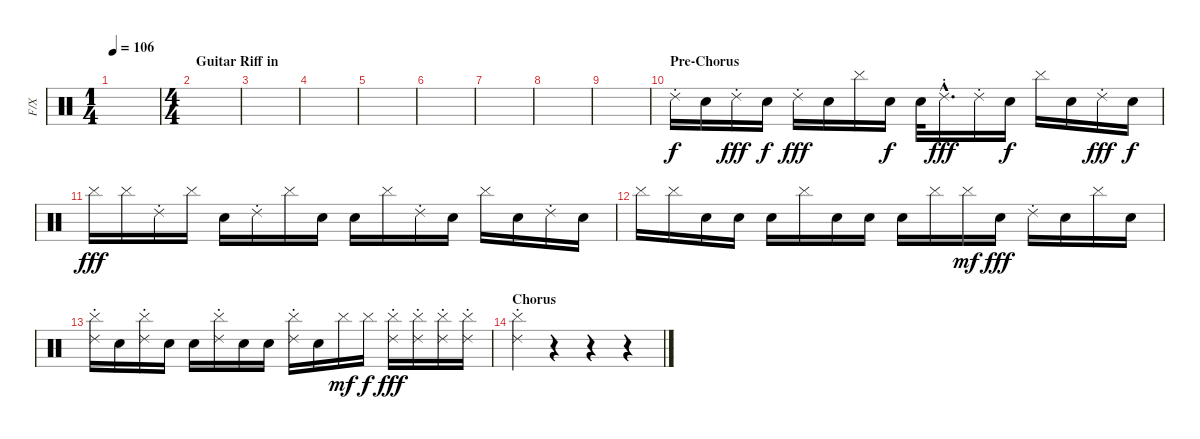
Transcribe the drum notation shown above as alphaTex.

\track ("F/X" "F/X") {instrument percussion}
\staff {score}
\articulation defaults
\ts (1 4)
\tempo 106
\clef neutral
\ks c
|
\ts (4 4)
\section ("" "Guitar Riff in")
|
|
|
|
|
|
|
|
\section ("" "Pre-Chorus")
"Ride (choke) 2".16 "Snare (hit)".16{dy f} "Ride (choke) 2".16{dy fff} "Snare (hit)".16{dy f} "Ride (choke) 2".16{dy fff} "Snare (hit)".16 "Cymbal (hit)".16 "Snare (hit)".16{dy f} "Snare (hit)".32 "Ride (choke) 2"{hac}.16{d dy fff} "Ride (choke) 2".16 "Snare (hit)".16{dy f} "Cymbal (hit)".16 "Snare (hit)".16 "Ride (choke) 2".16{dy fff} "Snare (hit)".16{dy f} |
"Cymbal (hit)".16{dy fff} "Cymbal (hit)".16 "Ride (choke) 2".16 "Cymbal (hit)".16 "Snare (hit)".16 "Ride (choke) 2".16 "Cymbal (hit)".16 "Snare (hit)".16 "Snare (hit)".16 "Cymbal (hit)".16 "Ride (choke) 2".16 "Snare (hit)".16 "Cymbal (hit)".16 "Snare (hit)".16 "Ride (choke) 2".16 "Snare (hit)".16 |
"Cymbal (hit)".16 "Cymbal (hit)".16 "Snare (hit)".16 "Snare (hit)".16 "Snare (hit)".16 "Cymbal (hit)".16 "Snare (hit)".16 "Snare (hit)".16 "Snare (hit)".16 "Cymbal (hit)".16 "Cymbal (hit)".16{dy mf} "Snare (hit)".16{dy fff} "Ride (choke) 2".16 "Snare (hit)".16 "Cymbal (hit)".16 "Snare (hit)".16 |
("Cymbal (hit)" "Ride (choke) 2").16 "Snare (hit)".16 ("Cymbal (hit)" "Ride (choke) 2").16 "Snare (hit)".16 "Snare (hit)".16 ("Cymbal (hit)" "Ride (choke) 2").16 "Snare (hit)".16 "Snare (hit)".16 ("Cymbal (hit)" "Ride (choke) 2").16 "Snare (hit)".16 "Cymbal (hit)".16{dy mf} "Cymbal (hit)".16{dy f} ("Cymbal (hit)" "Ride (choke) 2").16{dy fff} ("Cymbal (hit)" "Ride (choke) 2").16 ("Cymbal (hit)" "Ride (choke) 2").16 ("Cymbal (hit)" "Ride (choke) 2").16 |
\section ("" "Chorus")
("Cymbal (hit)" "Ride (choke) 2").4 r.4 r.4 r.4
